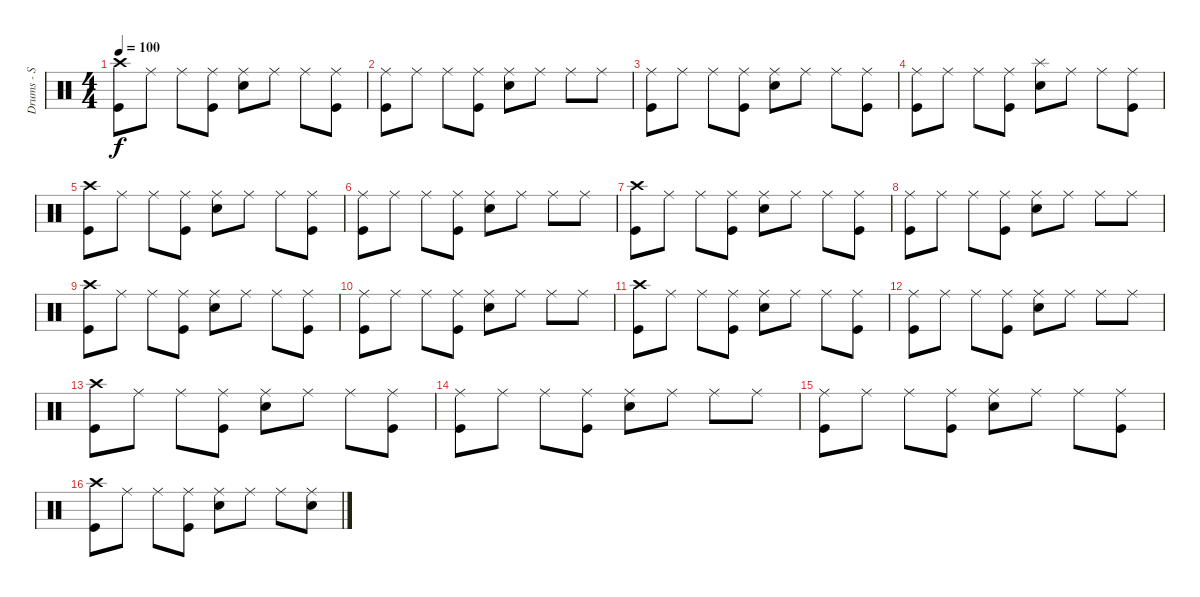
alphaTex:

\track ("Drums - S Man" "Drums - S ") {instrument percussion}
\staff {score}
\articulation defaults
\ts (4 4)
\tempo 100
\clef neutral
\ks c
("Crash high (hit)" "Kick (hit)").8{dy f} "Ride (middle)".8 "Ride (middle)".8 ("Ride (middle)" "Kick (hit)").8 ("Ride (middle)" "Electric Snare (hit)").8 "Ride (middle)".8 "Ride (middle)".8 ("Ride (middle)" "Kick (hit)").8 |
("Ride (middle)" "Kick (hit)").8 "Ride (middle)".8 "Ride (middle)".8 ("Ride (middle)" "Kick (hit)").8 ("Ride (middle)" "Electric Snare (hit)").8 "Ride (middle)".8 "Ride (middle)".8 "Ride (middle)".8 |
("Ride (middle)" "Kick (hit)").8 "Ride (middle)".8 "Ride (middle)".8 ("Ride (middle)" "Kick (hit)").8 ("Ride (middle)" "Electric Snare (hit)").8 "Ride (middle)".8 "Ride (middle)".8 ("Ride (middle)" "Kick (hit)").8 |
("Ride (middle)" "Kick (hit)").8 "Ride (middle)".8 "Ride (middle)".8 ("Ride (middle)" "Kick (hit)").8 ("Splash (hit)" "Electric Snare (hit)").8 "Ride (middle)".8 "Ride (middle)".8 ("Ride (middle)" "Kick (hit)").8 |
("Crash high (hit)" "Kick (hit)").8 "Ride (middle)".8 "Ride (middle)".8 ("Ride (middle)" "Kick (hit)").8 ("Ride (middle)" "Electric Snare (hit)").8 "Ride (middle)".8 "Ride (middle)".8 ("Ride (middle)" "Kick (hit)").8 |
("Ride (middle)" "Kick (hit)").8 "Ride (middle)".8 "Ride (middle)".8 ("Ride (middle)" "Kick (hit)").8 ("Ride (middle)" "Electric Snare (hit)").8 "Ride (middle)".8 "Ride (middle)".8 "Ride (middle)".8 |
("Crash high (hit)" "Kick (hit)").8 "Ride (middle)".8 "Ride (middle)".8 ("Ride (middle)" "Kick (hit)").8 ("Ride (middle)" "Electric Snare (hit)").8 "Ride (middle)".8 "Ride (middle)".8 ("Ride (middle)" "Kick (hit)").8 |
("Ride (middle)" "Kick (hit)").8 "Ride (middle)".8 "Ride (middle)".8 ("Ride (middle)" "Kick (hit)").8 ("Ride (middle)" "Electric Snare (hit)").8 "Ride (middle)".8 "Ride (middle)".8 "Ride (middle)".8 |
("Crash high (hit)" "Kick (hit)").8 "Ride (middle)".8 "Ride (middle)".8 ("Ride (middle)" "Kick (hit)").8 ("Ride (middle)" "Electric Snare (hit)").8 "Ride (middle)".8 "Ride (middle)".8 ("Ride (middle)" "Kick (hit)").8 |
("Ride (middle)" "Kick (hit)").8 "Ride (middle)".8 "Ride (middle)".8 ("Ride (middle)" "Kick (hit)").8 ("Ride (middle)" "Electric Snare (hit)").8 "Ride (middle)".8 "Ride (middle)".8 "Ride (middle)".8 |
("Crash high (hit)" "Kick (hit)").8 "Ride (middle)".8 "Ride (middle)".8 ("Ride (middle)" "Kick (hit)").8 ("Ride (middle)" "Electric Snare (hit)").8 "Ride (middle)".8 "Ride (middle)".8 ("Ride (middle)" "Kick (hit)").8 |
("Ride (middle)" "Kick (hit)").8 "Ride (middle)".8 "Ride (middle)".8 ("Ride (middle)" "Kick (hit)").8 ("Ride (middle)" "Electric Snare (hit)").8 "Ride (middle)".8 "Ride (middle)".8 "Ride (middle)".8 |
("Crash high (hit)" "Kick (hit)").8 "Ride (middle)".8 "Ride (middle)".8 ("Ride (middle)" "Kick (hit)").8 ("Ride (middle)" "Electric Snare (hit)").8 "Ride (middle)".8 "Ride (middle)".8 ("Ride (middle)" "Kick (hit)").8 |
("Ride (middle)" "Kick (hit)").8 "Ride (middle)".8 "Ride (middle)".8 ("Ride (middle)" "Kick (hit)").8 ("Ride (middle)" "Electric Snare (hit)").8 "Ride (middle)".8 "Ride (middle)".8 "Ride (middle)".8 |
("Ride (middle)" "Kick (hit)").8 "Ride (middle)".8 "Ride (middle)".8 ("Ride (middle)" "Kick (hit)").8 ("Ride (middle)" "Electric Snare (hit)").8 "Ride (middle)".8 "Ride (middle)".8 ("Ride (middle)" "Kick (hit)").8 |
("Crash high (hit)" "Kick (hit)").8 "Ride (middle)".8 "Ride (middle)".8 ("Ride (middle)" "Kick (hit)").8 ("Ride (middle)" "Electric Snare (hit)").8 "Ride (middle)".8 "Ride (middle)".8 ("Ride (middle)" "Electric Snare (hit)").8
